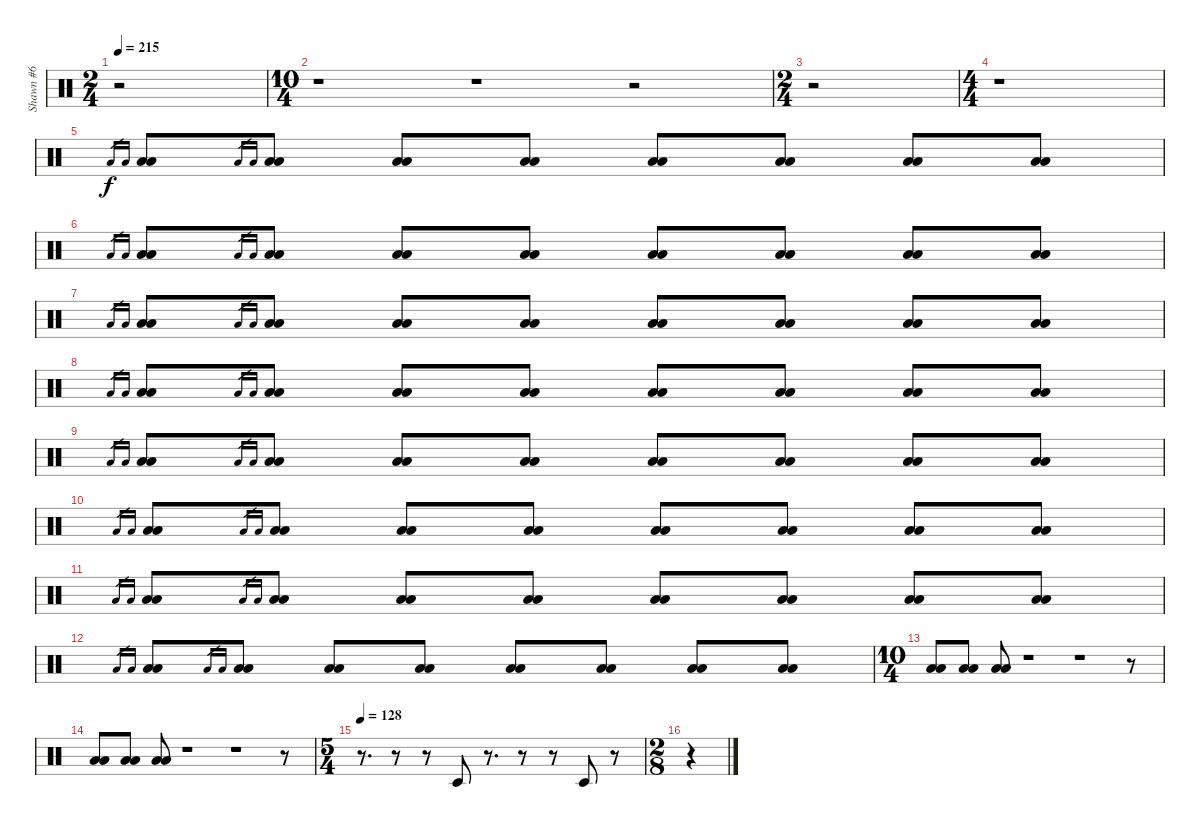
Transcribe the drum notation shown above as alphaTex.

\track ("Shawn #6" "Shawn #6") {instrument percussion}
\staff {score}
\articulation defaults
\ts (2 4)
\tempo 215
\clef neutral
\ks c
r.2{dy f} |
\ts (10 4)
r.1 r.1 r.2 |
\ts (2 4)
r.2 |
\ts (4 4)
r.1 |
"Low Floor Tom (hit)"{sl}.16{gr} "Low Floor Tom (hit)"{sl}.16{gr} ("Low Floor Tom (hit)" "Low Floor Tom (hit)").8 "Low Floor Tom (hit)"{sl}.16{gr} "Low Floor Tom (hit)"{sl}.16{gr} ("Low Floor Tom (hit)" "Low Floor Tom (hit)").8 ("Low Floor Tom (hit)" "Low Floor Tom (hit)").8 ("Low Floor Tom (hit)" "Low Floor Tom (hit)").8 ("Low Floor Tom (hit)" "Low Floor Tom (hit)").8 ("Low Floor Tom (hit)" "Low Floor Tom (hit)").8 ("Low Floor Tom (hit)" "Low Floor Tom (hit)").8 ("Low Floor Tom (hit)" "Low Floor Tom (hit)").8 |
"Low Floor Tom (hit)"{sl}.16{gr} "Low Floor Tom (hit)"{sl}.16{gr} ("Low Floor Tom (hit)" "Low Floor Tom (hit)").8 "Low Floor Tom (hit)"{sl}.16{gr} "Low Floor Tom (hit)"{sl}.16{gr} ("Low Floor Tom (hit)" "Low Floor Tom (hit)").8 ("Low Floor Tom (hit)" "Low Floor Tom (hit)").8 ("Low Floor Tom (hit)" "Low Floor Tom (hit)").8 ("Low Floor Tom (hit)" "Low Floor Tom (hit)").8 ("Low Floor Tom (hit)" "Low Floor Tom (hit)").8 ("Low Floor Tom (hit)" "Low Floor Tom (hit)").8 ("Low Floor Tom (hit)" "Low Floor Tom (hit)").8 |
"Low Floor Tom (hit)"{sl}.16{gr} "Low Floor Tom (hit)"{sl}.16{gr} ("Low Floor Tom (hit)" "Low Floor Tom (hit)").8 "Low Floor Tom (hit)"{sl}.16{gr} "Low Floor Tom (hit)"{sl}.16{gr} ("Low Floor Tom (hit)" "Low Floor Tom (hit)").8 ("Low Floor Tom (hit)" "Low Floor Tom (hit)").8 ("Low Floor Tom (hit)" "Low Floor Tom (hit)").8 ("Low Floor Tom (hit)" "Low Floor Tom (hit)").8 ("Low Floor Tom (hit)" "Low Floor Tom (hit)").8 ("Low Floor Tom (hit)" "Low Floor Tom (hit)").8 ("Low Floor Tom (hit)" "Low Floor Tom (hit)").8 |
"Low Floor Tom (hit)"{sl}.16{gr} "Low Floor Tom (hit)"{sl}.16{gr} ("Low Floor Tom (hit)" "Low Floor Tom (hit)").8 "Low Floor Tom (hit)"{sl}.16{gr} "Low Floor Tom (hit)"{sl}.16{gr} ("Low Floor Tom (hit)" "Low Floor Tom (hit)").8 ("Low Floor Tom (hit)" "Low Floor Tom (hit)").8 ("Low Floor Tom (hit)" "Low Floor Tom (hit)").8 ("Low Floor Tom (hit)" "Low Floor Tom (hit)").8 ("Low Floor Tom (hit)" "Low Floor Tom (hit)").8 ("Low Floor Tom (hit)" "Low Floor Tom (hit)").8 ("Low Floor Tom (hit)" "Low Floor Tom (hit)").8 |
"Low Floor Tom (hit)"{sl}.16{gr} "Low Floor Tom (hit)"{sl}.16{gr} ("Low Floor Tom (hit)" "Low Floor Tom (hit)").8 "Low Floor Tom (hit)"{sl}.16{gr} "Low Floor Tom (hit)"{sl}.16{gr} ("Low Floor Tom (hit)" "Low Floor Tom (hit)").8 ("Low Floor Tom (hit)" "Low Floor Tom (hit)").8 ("Low Floor Tom (hit)" "Low Floor Tom (hit)").8 ("Low Floor Tom (hit)" "Low Floor Tom (hit)").8 ("Low Floor Tom (hit)" "Low Floor Tom (hit)").8 ("Low Floor Tom (hit)" "Low Floor Tom (hit)").8 ("Low Floor Tom (hit)" "Low Floor Tom (hit)").8 |
"Low Floor Tom (hit)"{sl}.16{gr} "Low Floor Tom (hit)"{sl}.16{gr} ("Low Floor Tom (hit)" "Low Floor Tom (hit)").8 "Low Floor Tom (hit)"{sl}.16{gr} "Low Floor Tom (hit)"{sl}.16{gr} ("Low Floor Tom (hit)" "Low Floor Tom (hit)").8 ("Low Floor Tom (hit)" "Low Floor Tom (hit)").8 ("Low Floor Tom (hit)" "Low Floor Tom (hit)").8 ("Low Floor Tom (hit)" "Low Floor Tom (hit)").8 ("Low Floor Tom (hit)" "Low Floor Tom (hit)").8 ("Low Floor Tom (hit)" "Low Floor Tom (hit)").8 ("Low Floor Tom (hit)" "Low Floor Tom (hit)").8 |
"Low Floor Tom (hit)"{sl}.16{gr} "Low Floor Tom (hit)"{sl}.16{gr} ("Low Floor Tom (hit)" "Low Floor Tom (hit)").8 "Low Floor Tom (hit)"{sl}.16{gr} "Low Floor Tom (hit)"{sl}.16{gr} ("Low Floor Tom (hit)" "Low Floor Tom (hit)").8 ("Low Floor Tom (hit)" "Low Floor Tom (hit)").8 ("Low Floor Tom (hit)" "Low Floor Tom (hit)").8 ("Low Floor Tom (hit)" "Low Floor Tom (hit)").8 ("Low Floor Tom (hit)" "Low Floor Tom (hit)").8 ("Low Floor Tom (hit)" "Low Floor Tom (hit)").8 ("Low Floor Tom (hit)" "Low Floor Tom (hit)").8 |
"Low Floor Tom (hit)"{sl}.16{gr} "Low Floor Tom (hit)"{sl}.16{gr} ("Low Floor Tom (hit)" "Low Floor Tom (hit)").8 "Low Floor Tom (hit)"{sl}.16{gr} "Low Floor Tom (hit)"{sl}.16{gr} ("Low Floor Tom (hit)" "Low Floor Tom (hit)").8 ("Low Floor Tom (hit)" "Low Floor Tom (hit)").8 ("Low Floor Tom (hit)" "Low Floor Tom (hit)").8 ("Low Floor Tom (hit)" "Low Floor Tom (hit)").8 ("Low Floor Tom (hit)" "Low Floor Tom (hit)").8 ("Low Floor Tom (hit)" "Low Floor Tom (hit)").8 ("Low Floor Tom (hit)" "Low Floor Tom (hit)").8 |
\ts (10 4)
("Low Floor Tom (hit)" "Low Floor Tom (hit)").8{volume 16} ("Low Floor Tom (hit)" "Low Floor Tom (hit)").8 ("Low Floor Tom (hit)" "Low Floor Tom (hit)").8 r.1 r.1 r.8 |
("Low Floor Tom (hit)" "Low Floor Tom (hit)").8{volume 16} ("Low Floor Tom (hit)" "Low Floor Tom (hit)").8 ("Low Floor Tom (hit)" "Low Floor Tom (hit)").8 r.1 r.1 r.8{volume 10} |
\ts (5 4)
\tempo 128
r.8{d} r.8 r.8 "Timbale low (hit)".8 r.8{d} r.8 r.8 "Timbale low (hit)".8 r.8 |
\ts (2 8)
r.4
